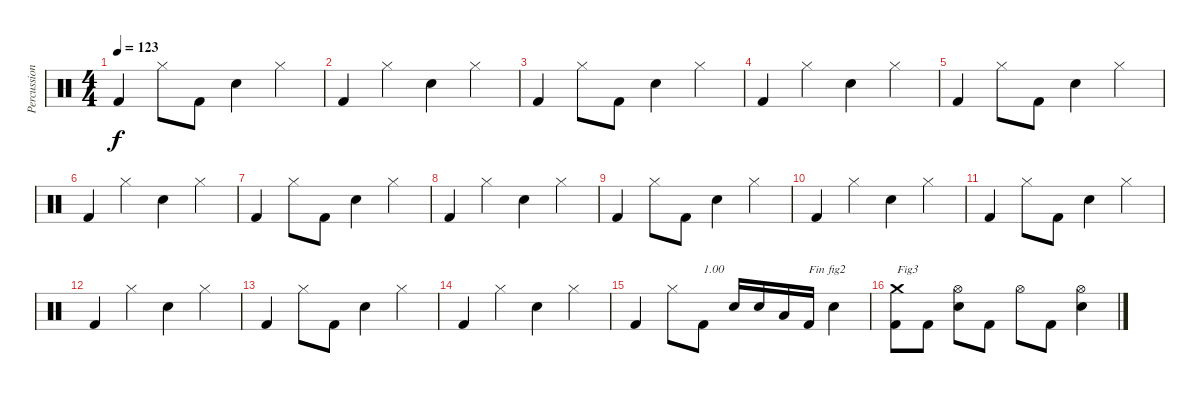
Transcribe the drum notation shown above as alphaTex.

\track ("Percussions" "Percussion") {instrument percussion}
\staff {score}
\articulation defaults
\ts (4 4)
\tempo 123
\clef neutral
\ks c "Kick (hit) 2".4{dy f} "Hi-Hat (closed)".8 "Kick (hit) 2".8 "Electric Snare (hit)".4 "Hi-Hat (closed)".4
|
"Kick (hit) 2".4 "Hi-Hat (closed)".4 "Electric Snare (hit)".4 "Hi-Hat (closed)".4 |
"Kick (hit) 2".4 "Hi-Hat (closed)".8 "Kick (hit) 2".8 "Electric Snare (hit)".4 "Hi-Hat (closed)".4 |
"Kick (hit) 2".4 "Hi-Hat (closed)".4 "Electric Snare (hit)".4 "Hi-Hat (closed)".4 |
"Kick (hit) 2".4 "Hi-Hat (closed)".8 "Kick (hit) 2".8 "Electric Snare (hit)".4 "Hi-Hat (closed)".4 |
"Kick (hit) 2".4 "Hi-Hat (closed)".4 "Electric Snare (hit)".4 "Hi-Hat (closed)".4 |
"Kick (hit) 2".4 "Hi-Hat (closed)".8 "Kick (hit) 2".8 "Electric Snare (hit)".4 "Hi-Hat (closed)".4 |
"Kick (hit) 2".4 "Hi-Hat (closed)".4 "Electric Snare (hit)".4 "Hi-Hat (closed)".4 |
"Kick (hit) 2".4 "Hi-Hat (closed)".8 "Kick (hit) 2".8 "Electric Snare (hit)".4 "Hi-Hat (closed)".4 |
"Kick (hit) 2".4 "Hi-Hat (closed)".4 "Electric Snare (hit)".4 "Hi-Hat (closed)".4 |
"Kick (hit) 2".4 "Hi-Hat (closed)".8 "Kick (hit) 2".8 "Electric Snare (hit)".4 "Hi-Hat (closed)".4 |
"Kick (hit) 2".4 "Hi-Hat (closed)".4 "Electric Snare (hit)".4 "Hi-Hat (closed)".4 |
"Kick (hit) 2".4 "Hi-Hat (closed)".8 "Kick (hit) 2".8 "Electric Snare (hit)".4 "Hi-Hat (closed)".4 |
"Kick (hit) 2".4 "Hi-Hat (closed)".4 "Electric Snare (hit)".4 "Hi-Hat (closed)".4 |
"Kick (hit) 2".4 "Hi-Hat (closed)".8 "Kick (hit) 2".8{txt "1.00"} "Electric Snare (hit)".16 "Electric Snare (hit)".16 "Low Floor Tom (hit)".16 "Kick (hit) 2".16{txt "Fin fig2"} "Electric Snare (hit)".4 |
("Kick (hit) 2" "Crash medium (hit)").8{txt "Fig3"} "Kick (hit) 2".8 ("Electric Snare (hit)" "Hi-Hat (open)").8 "Kick (hit) 2".8 "Hi-Hat (open)".8 "Kick (hit) 2".8 ("Electric Snare (hit)" "Hi-Hat (open)").4
